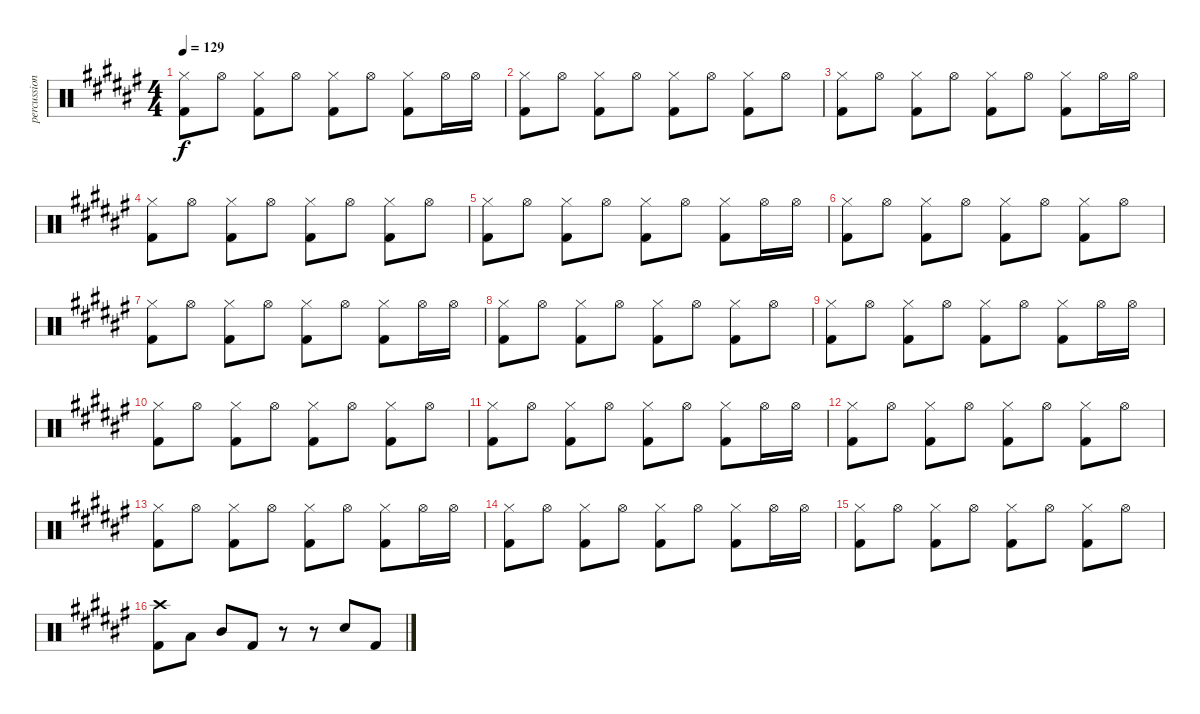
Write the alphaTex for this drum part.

\track ("percussion" "percussion") {instrument percussion}
\staff {score}
\articulation defaults
\ts (4 4)
\tempo 129
\clef neutral
\ks f#
("Hi-Hat (closed)" "Kick (hit) 2").8{dy f} "Hi-Hat (open)".8 ("Hi-Hat (closed)" "Kick (hit) 2").8 "Hi-Hat (open)".8 ("Hi-Hat (closed)" "Kick (hit) 2").8 "Hi-Hat (open)".8 ("Hi-Hat (closed)" "Kick (hit) 2").8 "Hi-Hat (open)".16 "Hi-Hat (open)".16 |
("Hi-Hat (closed)" "Kick (hit) 2").8 "Hi-Hat (open)".8 ("Hi-Hat (closed)" "Kick (hit) 2").8 "Hi-Hat (open)".8 ("Hi-Hat (closed)" "Kick (hit) 2").8 "Hi-Hat (open)".8 ("Hi-Hat (closed)" "Kick (hit) 2").8 "Hi-Hat (open)".8 |
("Hi-Hat (closed)" "Kick (hit) 2").8 "Hi-Hat (open)".8 ("Hi-Hat (closed)" "Kick (hit) 2").8 "Hi-Hat (open)".8 ("Hi-Hat (closed)" "Kick (hit) 2").8 "Hi-Hat (open)".8 ("Hi-Hat (closed)" "Kick (hit) 2").8 "Hi-Hat (open)".16 "Hi-Hat (open)".16 |
("Hi-Hat (closed)" "Kick (hit) 2").8 "Hi-Hat (open)".8 ("Hi-Hat (closed)" "Kick (hit) 2").8 "Hi-Hat (open)".8 ("Hi-Hat (closed)" "Kick (hit) 2").8 "Hi-Hat (open)".8 ("Hi-Hat (closed)" "Kick (hit) 2").8 "Hi-Hat (open)".8 |
("Hi-Hat (closed)" "Kick (hit) 2").8 "Hi-Hat (open)".8 ("Hi-Hat (closed)" "Kick (hit) 2").8 "Hi-Hat (open)".8 ("Hi-Hat (closed)" "Kick (hit) 2").8 "Hi-Hat (open)".8 ("Hi-Hat (closed)" "Kick (hit) 2").8 "Hi-Hat (open)".16 "Hi-Hat (open)".16 |
("Hi-Hat (closed)" "Kick (hit) 2").8 "Hi-Hat (open)".8 ("Hi-Hat (closed)" "Kick (hit) 2").8 "Hi-Hat (open)".8 ("Hi-Hat (closed)" "Kick (hit) 2").8 "Hi-Hat (open)".8 ("Hi-Hat (closed)" "Kick (hit) 2").8 "Hi-Hat (open)".8 |
("Hi-Hat (closed)" "Kick (hit) 2").8 "Hi-Hat (open)".8 ("Hi-Hat (closed)" "Kick (hit) 2").8 "Hi-Hat (open)".8 ("Hi-Hat (closed)" "Kick (hit) 2").8 "Hi-Hat (open)".8 ("Hi-Hat (closed)" "Kick (hit) 2").8 "Hi-Hat (open)".16 "Hi-Hat (open)".16 |
("Hi-Hat (closed)" "Kick (hit) 2").8 "Hi-Hat (open)".8 ("Hi-Hat (closed)" "Kick (hit) 2").8 "Hi-Hat (open)".8 ("Hi-Hat (closed)" "Kick (hit) 2").8 "Hi-Hat (open)".8 ("Hi-Hat (closed)" "Kick (hit) 2").8 "Hi-Hat (open)".8 |
("Hi-Hat (closed)" "Kick (hit) 2").8 "Hi-Hat (open)".8 ("Hi-Hat (closed)" "Kick (hit) 2").8 "Hi-Hat (open)".8 ("Hi-Hat (closed)" "Kick (hit) 2").8 "Hi-Hat (open)".8 ("Hi-Hat (closed)" "Kick (hit) 2").8 "Hi-Hat (open)".16 "Hi-Hat (open)".16 |
("Hi-Hat (closed)" "Kick (hit) 2").8 "Hi-Hat (open)".8 ("Hi-Hat (closed)" "Kick (hit) 2").8 "Hi-Hat (open)".8 ("Hi-Hat (closed)" "Kick (hit) 2").8 "Hi-Hat (open)".8 ("Hi-Hat (closed)" "Kick (hit) 2").8 "Hi-Hat (open)".8 |
("Hi-Hat (closed)" "Kick (hit) 2").8 "Hi-Hat (open)".8 ("Hi-Hat (closed)" "Kick (hit) 2").8 "Hi-Hat (open)".8 ("Hi-Hat (closed)" "Kick (hit) 2").8 "Hi-Hat (open)".8 ("Hi-Hat (closed)" "Kick (hit) 2").8 "Hi-Hat (open)".16 "Hi-Hat (open)".16 |
("Hi-Hat (closed)" "Kick (hit) 2").8 "Hi-Hat (open)".8 ("Hi-Hat (closed)" "Kick (hit) 2").8 "Hi-Hat (open)".8 ("Hi-Hat (closed)" "Kick (hit) 2").8 "Hi-Hat (open)".8 ("Hi-Hat (closed)" "Kick (hit) 2").8 "Hi-Hat (open)".8 |
("Hi-Hat (closed)" "Kick (hit) 2").8 "Hi-Hat (open)".8 ("Hi-Hat (closed)" "Kick (hit) 2").8 "Hi-Hat (open)".8 ("Hi-Hat (closed)" "Kick (hit) 2").8 "Hi-Hat (open)".8 ("Hi-Hat (closed)" "Kick (hit) 2").8 "Hi-Hat (open)".16 "Hi-Hat (open)".16 |
("Hi-Hat (closed)" "Kick (hit) 2").8 "Hi-Hat (open)".8 ("Hi-Hat (closed)" "Kick (hit) 2").8 "Hi-Hat (open)".8 ("Hi-Hat (closed)" "Kick (hit) 2").8 "Hi-Hat (open)".8 ("Hi-Hat (closed)" "Kick (hit) 2").8 "Hi-Hat (open)".16 "Hi-Hat (open)".16 |
("Hi-Hat (closed)" "Kick (hit) 2").8 "Hi-Hat (open)".8 ("Hi-Hat (closed)" "Kick (hit) 2").8 "Hi-Hat (open)".8 ("Hi-Hat (closed)" "Kick (hit) 2").8 "Hi-Hat (open)".8 ("Hi-Hat (closed)" "Kick (hit) 2").8 "Hi-Hat (open)".8 |
("Crash high (hit)" "Kick (hit) 2").8 "Low Tom (hit)".8 "Mid Tom (hit)".8 "Kick (hit) 2".8 r.8 r.8 "Snare (hit) 2".8 "Kick (hit) 2".8
